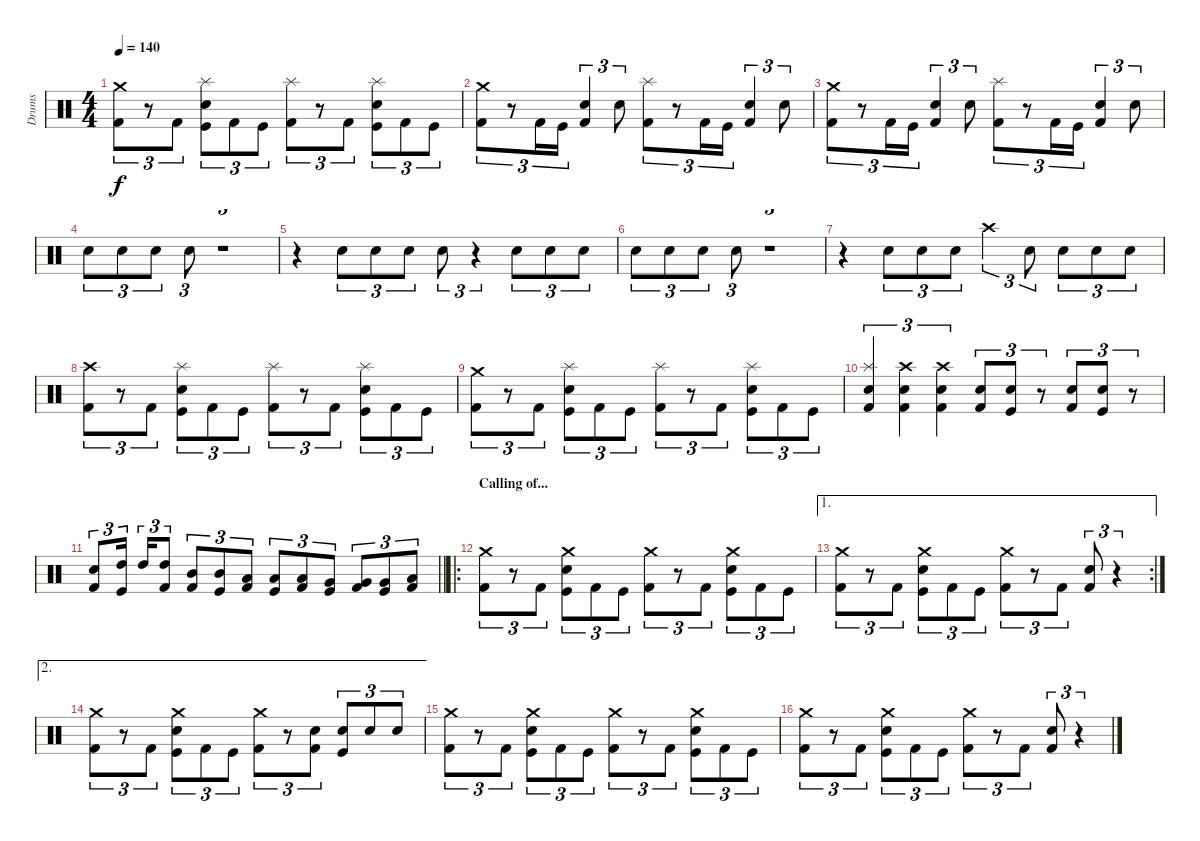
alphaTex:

\track ("Drums" "Drums") {instrument percussion}
\staff {score}
\articulation defaults
\ts (4 4)
\tempo 140
\clef neutral
\ks c
("Crash medium (hit)" "Kick (hit) 2").8{tu (3 2) dy f} r.8{tu (3 2)} "Kick (hit) 2".8{tu (3 2)} ("Splash (hit)" "Snare (hit) 2" "Kick (hit)").8{tu (3 2)} "Kick (hit) 2".8{tu (3 2)} "Kick (hit)".8{tu (3 2)} ("Splash (hit)" "Kick (hit) 2").8{tu (3 2)} r.8{tu (3 2)} "Kick (hit) 2".8{tu (3 2)} ("Splash (hit)" "Snare (hit) 2" "Kick (hit)").8{tu (3 2)} "Kick (hit) 2".8{tu (3 2)} "Kick (hit)".8{tu (3 2)} |
("Crash medium (hit)" "Kick (hit) 2").8{tu (3 2)} r.8{tu (3 2)} "Kick (hit) 2".16{tu (3 2)} "Kick (hit)".16{tu (3 2)} ("Snare (hit) 2" "Kick (hit) 2").4{tu (3 2)} "Snare (hit) 2".8{tu (3 2)} ("Splash (hit)" "Kick (hit) 2").8{tu (3 2)} r.8{tu (3 2)} "Kick (hit) 2".16{tu (3 2)} "Kick (hit)".16{tu (3 2)} ("Snare (hit) 2" "Kick (hit) 2").4{tu (3 2)} "Snare (hit) 2".8{tu (3 2)} |
("Crash medium (hit)" "Kick (hit) 2").8{tu (3 2)} r.8{tu (3 2)} "Kick (hit) 2".16{tu (3 2)} "Kick (hit)".16{tu (3 2)} ("Snare (hit) 2" "Kick (hit) 2").4{tu (3 2)} "Snare (hit) 2".8{tu (3 2)} ("Splash (hit)" "Kick (hit) 2").8{tu (3 2)} r.8{tu (3 2)} "Kick (hit) 2".16{tu (3 2)} "Kick (hit)".16{tu (3 2)} ("Snare (hit) 2" "Kick (hit) 2").4{tu (3 2)} "Snare (hit) 2".8{tu (3 2)} |
"Snare (hit) 2".8{tu (3 2)} "Snare (hit) 2".8{tu (3 2)} "Snare (hit) 2".8{tu (3 2)} "Snare (hit) 2".8{tu (3 2)} r.1{tu (3 2)} |
r.4 "Snare (hit) 2".8{tu (3 2)} "Snare (hit) 2".8{tu (3 2)} "Snare (hit) 2".8{tu (3 2)} "Snare (hit) 2".8{tu (3 2)} r.4{tu (3 2)} "Snare (hit) 2".8{tu (3 2)} "Snare (hit) 2".8{tu (3 2)} "Snare (hit) 2".8{tu (3 2)} |
"Snare (hit) 2".8{tu (3 2)} "Snare (hit) 2".8{tu (3 2)} "Snare (hit) 2".8{tu (3 2)} "Snare (hit) 2".8{tu (3 2)} r.1{tu (3 2)} |
r.4 "Snare (hit) 2".8{tu (3 2)} "Snare (hit) 2".8{tu (3 2)} "Snare (hit) 2".8{tu (3 2)} "Crash high (hit)".4{tu (3 2)} "Snare (hit) 2".8{tu (3 2)} "Snare (hit) 2".8{tu (3 2)} "Snare (hit) 2".8{tu (3 2)} "Snare (hit) 2".8{tu (3 2)} |
("Crash high (hit)" "Kick (hit) 2").8{tu (3 2)} r.8{tu (3 2)} "Kick (hit) 2".8{tu (3 2)} ("Splash (hit)" "Snare (hit) 2" "Kick (hit)").8{tu (3 2)} "Kick (hit) 2".8{tu (3 2)} "Kick (hit)".8{tu (3 2)} ("Splash (hit)" "Kick (hit) 2").8{tu (3 2)} r.8{tu (3 2)} "Kick (hit) 2".8{tu (3 2)} ("Splash (hit)" "Snare (hit) 2" "Kick (hit)").8{tu (3 2)} "Kick (hit) 2".8{tu (3 2)} "Kick (hit)".8{tu (3 2)} |
("Crash medium (hit)" "Kick (hit) 2").8{tu (3 2)} r.8{tu (3 2)} "Kick (hit) 2".8{tu (3 2)} ("Splash (hit)" "Snare (hit) 2" "Kick (hit)").8{tu (3 2)} "Kick (hit) 2".8{tu (3 2)} "Kick (hit)".8{tu (3 2)} ("Splash (hit)" "Kick (hit) 2").8{tu (3 2)} r.8{tu (3 2)} "Kick (hit) 2".8{tu (3 2)} ("Splash (hit)" "Snare (hit) 2" "Kick (hit)").8{tu (3 2)} "Kick (hit) 2".8{tu (3 2)} "Kick (hit)".8{tu (3 2)} |
("Splash (hit)" "Snare (hit) 2" "Kick (hit) 2").4{tu (3 2)} ("Crash high (hit)" "Snare (hit) 2" "Kick (hit) 2").4{tu (3 2)} ("Crash high (hit)" "Snare (hit) 2" "Kick (hit) 2").4{tu (3 2)} ("Snare (hit) 2" "Kick (hit) 2").8{tu (3 2)} ("Snare (hit) 2" "Kick (hit)").8{tu (3 2)} r.8{tu (3 2)} ("Snare (hit) 2" "Kick (hit) 2").8{tu (3 2)} ("Snare (hit) 2" "Kick (hit)").8{tu (3 2)} r.8{tu (3 2)} |
\barLineRight lightlight
("Snare (hit) 2" "Kick (hit) 2").8{tu (3 2)} ("High Tom (hit)" "Kick (hit)").16{tu (3 2) beam splitsecondary} "High Tom (hit)".16{tu (3 2)} ("High Tom (hit)" "Kick (hit) 2").8{tu (3 2)} ("Mid Tom (hit)" "Kick (hit) 2").8{tu (3 2)} ("Mid Tom (hit)" "Kick (hit)").8{tu (3 2)} ("Low Tom (hit)" "Kick (hit) 2").8{tu (3 2)} ("Low Tom (hit)" "Kick (hit)").8{tu (3 2)} ("Low Tom (hit)" "Kick (hit) 2").8{tu (3 2)} ("Very Low Tom (hit)" "Kick (hit)").8{tu (3 2)} ("Very Low Tom (hit)" "Kick (hit) 2").8{tu (3 2)} ("Very Low Tom (hit)" "Kick (hit)").8{tu (3 2)} ("Low Floor Tom (hit)" "Kick (hit) 2").8{tu (3 2)} |
\ro
\section ("" "Calling of...")
("Crash medium (hit)" "Kick (hit) 2").8{tu (3 2)} r.8{tu (3 2)} "Kick (hit) 2".8{tu (3 2)} ("Crash medium (hit)" "Snare (hit) 2" "Kick (hit)").8{tu (3 2)} "Kick (hit) 2".8{tu (3 2)} "Kick (hit)".8{tu (3 2)} ("Crash medium (hit)" "Kick (hit) 2").8{tu (3 2)} r.8{tu (3 2)} "Kick (hit) 2".8{tu (3 2)} ("Crash medium (hit)" "Snare (hit) 2" "Kick (hit)").8{tu (3 2)} "Kick (hit) 2".8{tu (3 2)} "Kick (hit)".8{tu (3 2)} |
\ae 1
\rc 2
("Crash medium (hit)" "Kick (hit) 2").8{tu (3 2)} r.8{tu (3 2)} "Kick (hit) 2".8{tu (3 2)} ("Crash medium (hit)" "Snare (hit) 2" "Kick (hit)").8{tu (3 2)} "Kick (hit) 2".8{tu (3 2)} "Kick (hit)".8{tu (3 2)} ("Crash medium (hit)" "Kick (hit) 2").8{tu (3 2)} r.8{tu (3 2)} "Kick (hit) 2".8{tu (3 2)} ("Snare (hit) 2" "Kick (hit) 2").8{tu (3 2)} r.4{tu (3 2)} |
\ae 2
("Crash medium (hit)" "Kick (hit) 2").8{tu (3 2)} r.8{tu (3 2)} "Kick (hit) 2".8{tu (3 2)} ("Crash medium (hit)" "Snare (hit) 2" "Kick (hit)").8{tu (3 2)} "Kick (hit) 2".8{tu (3 2)} "Kick (hit)".8{tu (3 2)} ("Crash medium (hit)" "Kick (hit) 2").8{tu (3 2)} r.8{tu (3 2)} ("Snare (hit) 2" "Kick (hit) 2").8{tu (3 2)} ("Snare (hit) 2" "Kick (hit)").8{tu (3 2)} "Snare (hit) 2".8{tu (3 2)} "Snare (hit) 2".8{tu (3 2)} |
("Crash medium (hit)" "Kick (hit) 2").8{tu (3 2)} r.8{tu (3 2)} "Kick (hit) 2".8{tu (3 2)} ("Crash medium (hit)" "Snare (hit) 2" "Kick (hit)").8{tu (3 2)} "Kick (hit) 2".8{tu (3 2)} "Kick (hit)".8{tu (3 2)} ("Crash medium (hit)" "Kick (hit) 2").8{tu (3 2)} r.8{tu (3 2)} "Kick (hit) 2".8{tu (3 2)} ("Crash medium (hit)" "Snare (hit) 2" "Kick (hit)").8{tu (3 2)} "Kick (hit) 2".8{tu (3 2)} "Kick (hit)".8{tu (3 2)} |
("Crash medium (hit)" "Kick (hit) 2").8{tu (3 2)} r.8{tu (3 2)} "Kick (hit) 2".8{tu (3 2)} ("Crash medium (hit)" "Snare (hit) 2" "Kick (hit)").8{tu (3 2)} "Kick (hit) 2".8{tu (3 2)} "Kick (hit)".8{tu (3 2)} ("Crash medium (hit)" "Kick (hit) 2").8{tu (3 2)} r.8{tu (3 2)} "Kick (hit) 2".8{tu (3 2)} ("Snare (hit) 2" "Kick (hit) 2").8{tu (3 2)} r.4{tu (3 2)}
